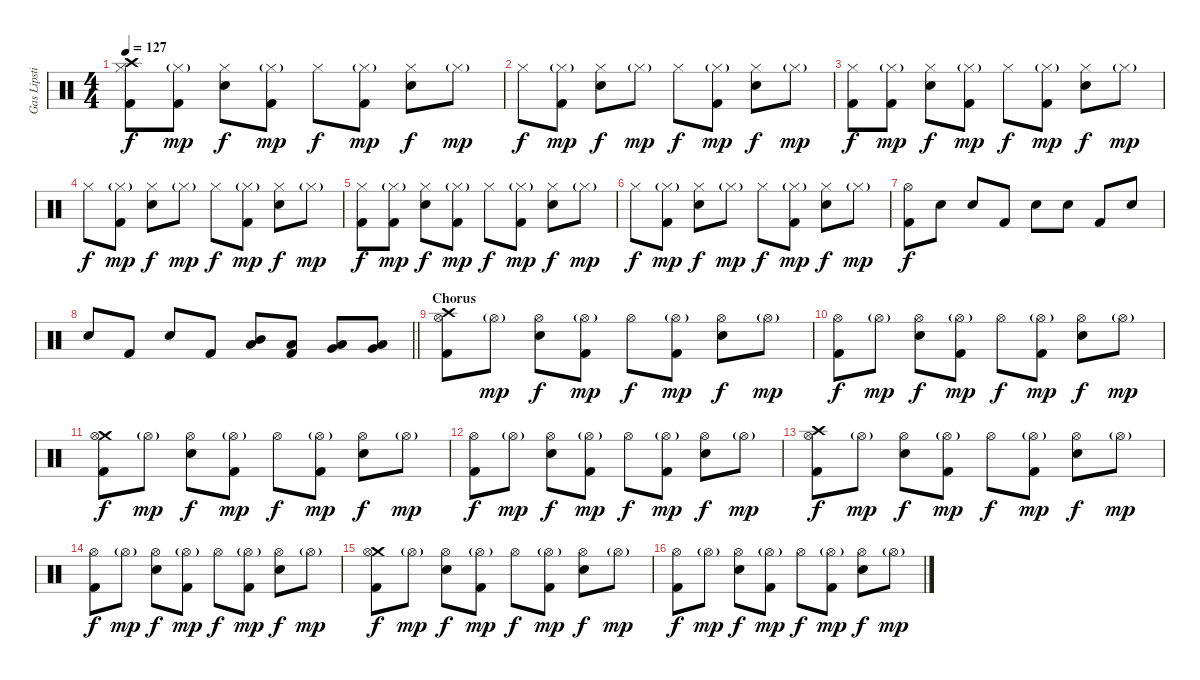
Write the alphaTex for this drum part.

\track ("Gas Lipstick (Drums)" "Gas Lipsti") {instrument percussion}
\staff {score}
\articulation defaults
\ts (4 4)
\tempo 127
\clef neutral
\ks c
("Crash high (hit)" "Hi-Hat (closed)" "Kick (hit) 2").8{dy f} ("Hi-Hat (closed)"{g} "Kick (hit) 2").8{dy mp} ("Hi-Hat (closed)" "Snare (hit) 2").8{dy f} ("Hi-Hat (closed)"{g} "Kick (hit) 2").8{dy mp} "Hi-Hat (closed)".8{dy f} ("Hi-Hat (closed)"{g} "Kick (hit) 2").8{dy mp} ("Hi-Hat (closed)" "Snare (hit) 2").8{dy f} "Hi-Hat (closed)"{g}.8{dy mp} |
"Hi-Hat (closed)".8{dy f} ("Hi-Hat (closed)"{g} "Kick (hit) 2").8{dy mp} ("Hi-Hat (closed)" "Snare (hit) 2").8{dy f} "Hi-Hat (closed)"{g}.8{dy mp} "Hi-Hat (closed)".8{dy f} ("Hi-Hat (closed)"{g} "Kick (hit) 2").8{dy mp} ("Hi-Hat (closed)" "Snare (hit) 2").8{dy f} "Hi-Hat (closed)"{g}.8{dy mp} |
("Hi-Hat (closed)" "Kick (hit) 2").8{dy f} ("Hi-Hat (closed)"{g} "Kick (hit) 2").8{dy mp} ("Hi-Hat (closed)" "Snare (hit) 2").8{dy f} ("Hi-Hat (closed)"{g} "Kick (hit) 2").8{dy mp} "Hi-Hat (closed)".8{dy f} ("Hi-Hat (closed)"{g} "Kick (hit) 2").8{dy mp} ("Hi-Hat (closed)" "Snare (hit) 2").8{dy f} "Hi-Hat (closed)"{g}.8{dy mp} |
"Hi-Hat (closed)".8{dy f} ("Hi-Hat (closed)"{g} "Kick (hit) 2").8{dy mp} ("Hi-Hat (closed)" "Snare (hit) 2").8{dy f} "Hi-Hat (closed)"{g}.8{dy mp} "Hi-Hat (closed)".8{dy f} ("Hi-Hat (closed)"{g} "Kick (hit) 2").8{dy mp} ("Hi-Hat (closed)" "Snare (hit) 2").8{dy f} "Hi-Hat (closed)"{g}.8{dy mp} |
("Hi-Hat (closed)" "Kick (hit) 2").8{dy f} ("Hi-Hat (closed)"{g} "Kick (hit) 2").8{dy mp} ("Hi-Hat (closed)" "Snare (hit) 2").8{dy f} ("Hi-Hat (closed)"{g} "Kick (hit) 2").8{dy mp} "Hi-Hat (closed)".8{dy f} ("Hi-Hat (closed)"{g} "Kick (hit) 2").8{dy mp} ("Hi-Hat (closed)" "Snare (hit) 2").8{dy f} "Hi-Hat (closed)"{g}.8{dy mp} |
"Hi-Hat (closed)".8{dy f} ("Hi-Hat (closed)"{g} "Kick (hit) 2").8{dy mp} ("Hi-Hat (closed)" "Snare (hit) 2").8{dy f} "Hi-Hat (closed)"{g}.8{dy mp} "Hi-Hat (closed)".8{dy f} ("Hi-Hat (closed)"{g} "Kick (hit) 2").8{dy mp} ("Hi-Hat (closed)" "Snare (hit) 2").8{dy f} "Hi-Hat (closed)"{g}.8{dy mp} |
("Hi-Hat (open)" "Kick (hit) 2").8{dy f} "Snare (hit) 2".8 "Snare (hit) 2".8 "Kick (hit) 2".8 "Snare (hit) 2".8 "Snare (hit) 2".8 "Kick (hit) 2".8 "Snare (hit) 2".8 |
\barLineRight lightlight "Snare (hit) 2".8 "Kick (hit) 2".8 "Snare (hit) 2".8 "Kick (hit) 2".8
("Low Tom (hit)" "Mid Tom (hit)").8 ("Low Tom (hit)" "Kick (hit) 2").8 ("Low Tom (hit)" "Very Low Tom (hit)").8 ("Low Tom (hit)" "Very Low Tom (hit)").8 |
\section ("" "Chorus")
("Crash high (hit)" "Hi-Hat (open)" "Kick (hit) 2").8 "Hi-Hat (open)"{g}.8{dy mp} ("Hi-Hat (open)" "Snare (hit) 2").8{dy f} ("Hi-Hat (open)"{g} "Kick (hit) 2").8{dy mp} "Hi-Hat (open)".8{dy f} ("Hi-Hat (open)"{g} "Kick (hit) 2").8{dy mp} ("Hi-Hat (open)" "Snare (hit) 2").8{dy f} "Hi-Hat (open)"{g}.8{dy mp} |
("Hi-Hat (open)" "Kick (hit) 2").8{dy f} "Hi-Hat (open)"{g}.8{dy mp} ("Hi-Hat (open)" "Snare (hit) 2").8{dy f} ("Hi-Hat (open)"{g} "Kick (hit) 2").8{dy mp} "Hi-Hat (open)".8{dy f} ("Hi-Hat (open)"{g} "Kick (hit) 2").8{dy mp} ("Hi-Hat (open)" "Snare (hit) 2").8{dy f} "Hi-Hat (open)"{g}.8{dy mp} |
("Crash medium (hit)" "Hi-Hat (open)" "Kick (hit) 2").8{dy f} "Hi-Hat (open)"{g}.8{dy mp} ("Hi-Hat (open)" "Snare (hit) 2").8{dy f} ("Hi-Hat (open)"{g} "Kick (hit) 2").8{dy mp} "Hi-Hat (open)".8{dy f} ("Hi-Hat (open)"{g} "Kick (hit) 2").8{dy mp} ("Hi-Hat (open)" "Snare (hit) 2").8{dy f} "Hi-Hat (open)"{g}.8{dy mp} |
("Hi-Hat (open)" "Kick (hit) 2").8{dy f} "Hi-Hat (open)"{g}.8{dy mp} ("Hi-Hat (open)" "Snare (hit) 2").8{dy f} ("Hi-Hat (open)"{g} "Kick (hit) 2").8{dy mp} "Hi-Hat (open)".8{dy f} ("Hi-Hat (open)"{g} "Kick (hit) 2").8{dy mp} ("Hi-Hat (open)" "Snare (hit) 2").8{dy f} "Hi-Hat (open)"{g}.8{dy mp} |
("Crash high (hit)" "Hi-Hat (open)" "Kick (hit) 2").8{dy f} "Hi-Hat (open)"{g}.8{dy mp} ("Hi-Hat (open)" "Snare (hit) 2").8{dy f} ("Hi-Hat (open)"{g} "Kick (hit) 2").8{dy mp} "Hi-Hat (open)".8{dy f} ("Hi-Hat (open)"{g} "Kick (hit) 2").8{dy mp} ("Hi-Hat (open)" "Snare (hit) 2").8{dy f} "Hi-Hat (open)"{g}.8{dy mp} |
("Hi-Hat (open)" "Kick (hit) 2").8{dy f} "Hi-Hat (open)"{g}.8{dy mp} ("Hi-Hat (open)" "Snare (hit) 2").8{dy f} ("Hi-Hat (open)"{g} "Kick (hit) 2").8{dy mp} "Hi-Hat (open)".8{dy f} ("Hi-Hat (open)"{g} "Kick (hit) 2").8{dy mp} ("Hi-Hat (open)" "Snare (hit) 2").8{dy f} "Hi-Hat (open)"{g}.8{dy mp} |
("Crash medium (hit)" "Hi-Hat (open)" "Kick (hit) 2").8{dy f} "Hi-Hat (open)"{g}.8{dy mp} ("Hi-Hat (open)" "Snare (hit) 2").8{dy f} ("Hi-Hat (open)"{g} "Kick (hit) 2").8{dy mp} "Hi-Hat (open)".8{dy f} ("Hi-Hat (open)"{g} "Kick (hit) 2").8{dy mp} ("Hi-Hat (open)" "Snare (hit) 2").8{dy f} "Hi-Hat (open)"{g}.8{dy mp} |
("Hi-Hat (open)" "Kick (hit) 2").8{dy f} "Hi-Hat (open)"{g}.8{dy mp} ("Hi-Hat (open)" "Snare (hit) 2").8{dy f} ("Hi-Hat (open)"{g} "Kick (hit) 2").8{dy mp} "Hi-Hat (open)".8{dy f} ("Hi-Hat (open)"{g} "Kick (hit) 2").8{dy mp} ("Hi-Hat (open)" "Snare (hit) 2").8{dy f} "Hi-Hat (open)"{g}.8{dy mp}
